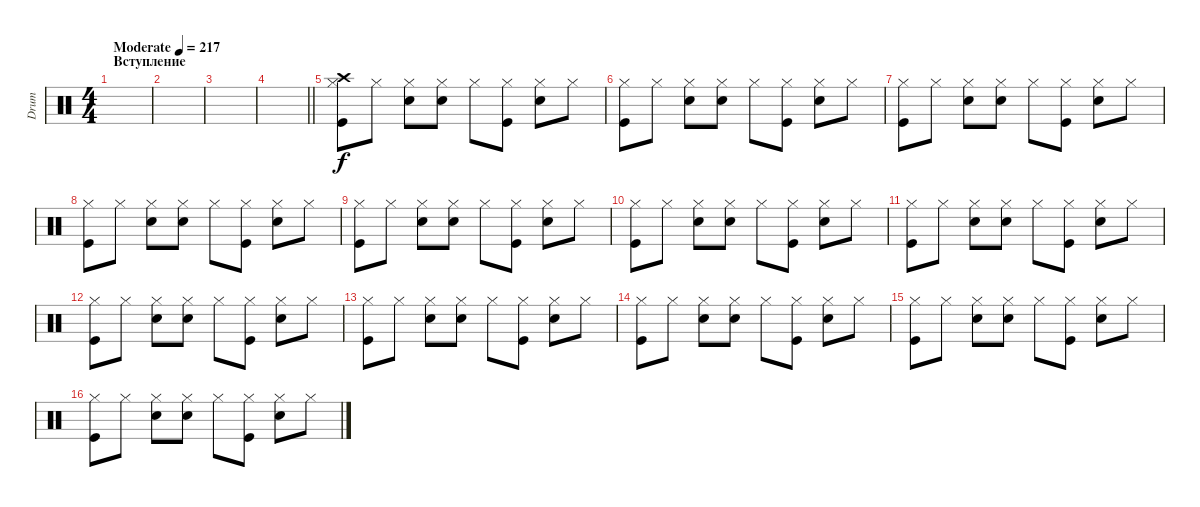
\track ("Drum" "Drum") {instrument percussion}
\staff {score}
\articulation defaults
\ts (4 4)
\section ("" "Вступление")
\tempo (217 "Moderate")
\clef neutral
\ks c
|
|
|
\barLineRight lightlight
|
\section ("" "")
("Kick (hit)" "Hi-Hat (closed)" "Crash high (hit)").8 "Hi-Hat (closed)".8 ("Snare (hit) 2" "Hi-Hat (closed)").8 ("Snare (hit) 2" "Hi-Hat (closed)").8 "Hi-Hat (closed)".8 ("Kick (hit)" "Hi-Hat (closed)").8 ("Snare (hit) 2" "Hi-Hat (closed)").8 "Hi-Hat (closed)".8 |
("Kick (hit)" "Hi-Hat (closed)").8 "Hi-Hat (closed)".8 ("Snare (hit) 2" "Hi-Hat (closed)").8 ("Snare (hit) 2" "Hi-Hat (closed)").8 "Hi-Hat (closed)".8 ("Kick (hit)" "Hi-Hat (closed)").8 ("Snare (hit) 2" "Hi-Hat (closed)").8 "Hi-Hat (closed)".8 |
("Kick (hit)" "Hi-Hat (closed)").8 "Hi-Hat (closed)".8 ("Snare (hit) 2" "Hi-Hat (closed)").8 ("Snare (hit) 2" "Hi-Hat (closed)").8 "Hi-Hat (closed)".8 ("Kick (hit)" "Hi-Hat (closed)").8 ("Snare (hit) 2" "Hi-Hat (closed)").8 "Hi-Hat (closed)".8 |
("Kick (hit)" "Hi-Hat (closed)").8 "Hi-Hat (closed)".8 ("Snare (hit) 2" "Hi-Hat (closed)").8 ("Snare (hit) 2" "Hi-Hat (closed)").8 "Hi-Hat (closed)".8 ("Kick (hit)" "Hi-Hat (closed)").8 ("Snare (hit) 2" "Hi-Hat (closed)").8 "Hi-Hat (closed)".8 |
("Kick (hit)" "Hi-Hat (closed)").8 "Hi-Hat (closed)".8 ("Snare (hit) 2" "Hi-Hat (closed)").8 ("Snare (hit) 2" "Hi-Hat (closed)").8 "Hi-Hat (closed)".8 ("Kick (hit)" "Hi-Hat (closed)").8 ("Snare (hit) 2" "Hi-Hat (closed)").8 "Hi-Hat (closed)".8 |
("Kick (hit)" "Hi-Hat (closed)").8 "Hi-Hat (closed)".8 ("Snare (hit) 2" "Hi-Hat (closed)").8 ("Snare (hit) 2" "Hi-Hat (closed)").8 "Hi-Hat (closed)".8 ("Kick (hit)" "Hi-Hat (closed)").8 ("Snare (hit) 2" "Hi-Hat (closed)").8 "Hi-Hat (closed)".8 |
("Kick (hit)" "Hi-Hat (closed)").8 "Hi-Hat (closed)".8 ("Snare (hit) 2" "Hi-Hat (closed)").8 ("Snare (hit) 2" "Hi-Hat (closed)").8 "Hi-Hat (closed)".8 ("Kick (hit)" "Hi-Hat (closed)").8 ("Snare (hit) 2" "Hi-Hat (closed)").8 "Hi-Hat (closed)".8 |
("Kick (hit)" "Hi-Hat (closed)").8 "Hi-Hat (closed)".8 ("Snare (hit) 2" "Hi-Hat (closed)").8 ("Snare (hit) 2" "Hi-Hat (closed)").8 "Hi-Hat (closed)".8 ("Kick (hit)" "Hi-Hat (closed)").8 ("Snare (hit) 2" "Hi-Hat (closed)").8 "Hi-Hat (closed)".8 |
("Kick (hit)" "Hi-Hat (closed)").8 "Hi-Hat (closed)".8 ("Snare (hit) 2" "Hi-Hat (closed)").8 ("Snare (hit) 2" "Hi-Hat (closed)").8 "Hi-Hat (closed)".8 ("Kick (hit)" "Hi-Hat (closed)").8 ("Snare (hit) 2" "Hi-Hat (closed)").8 "Hi-Hat (closed)".8 |
("Kick (hit)" "Hi-Hat (closed)").8 "Hi-Hat (closed)".8 ("Snare (hit) 2" "Hi-Hat (closed)").8 ("Snare (hit) 2" "Hi-Hat (closed)").8 "Hi-Hat (closed)".8 ("Kick (hit)" "Hi-Hat (closed)").8 ("Snare (hit) 2" "Hi-Hat (closed)").8 "Hi-Hat (closed)".8 |
("Kick (hit)" "Hi-Hat (closed)").8 "Hi-Hat (closed)".8 ("Snare (hit) 2" "Hi-Hat (closed)").8 ("Snare (hit) 2" "Hi-Hat (closed)").8 "Hi-Hat (closed)".8 ("Kick (hit)" "Hi-Hat (closed)").8 ("Snare (hit) 2" "Hi-Hat (closed)").8 "Hi-Hat (closed)".8 |
("Kick (hit)" "Hi-Hat (closed)").8 "Hi-Hat (closed)".8 ("Snare (hit) 2" "Hi-Hat (closed)").8 ("Snare (hit) 2" "Hi-Hat (closed)").8 "Hi-Hat (closed)".8 ("Kick (hit)" "Hi-Hat (closed)").8 ("Snare (hit) 2" "Hi-Hat (closed)").8 "Hi-Hat (closed)".8
